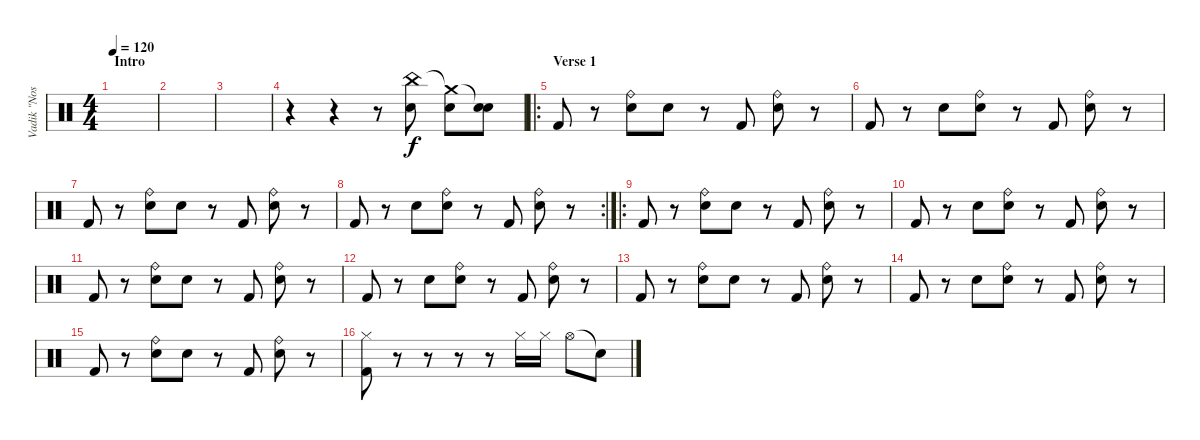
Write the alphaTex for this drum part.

\track ("Vadik \"Nos\"" "Vadik \"Nos") {instrument percussion}
\staff {score}
\articulation defaults
\ts (4 4)
\section ("" "Intro")
\tempo 120
\clef neutral
\ks c
|
|
|
r.4 r.4 r.8 ("Snare (hit) 2" "China (hit)").8 ("Snare (hit) 2" "Crash medium (hit)"{t}).8 ("Snare (hit) 2" "Snare (hit)"{t}).8 |
\ro
\section ("" "Verse 1")
"Kick (hit) 2".8 r.8 ("Snare (hit) 2" "Ride (bell)").8 "Snare (hit) 2".8 r.8 "Kick (hit) 2".8 ("Snare (hit) 2" "Ride (bell)").8 r.8 |
"Kick (hit) 2".8 r.8 "Snare (hit) 2".8 ("Snare (hit) 2" "Ride (bell)").8 r.8 "Kick (hit) 2".8 ("Snare (hit) 2" "Ride (bell)").8 r.8 |
"Kick (hit) 2".8 r.8 ("Snare (hit) 2" "Ride (bell)").8 "Snare (hit) 2".8 r.8 "Kick (hit) 2".8 ("Snare (hit) 2" "Ride (bell)").8 r.8 |
\rc 2 "Kick (hit) 2".8
r.8 "Snare (hit) 2".8 ("Snare (hit) 2" "Ride (bell)").8 r.8 "Kick (hit) 2".8 ("Snare (hit) 2" "Ride (bell)").8 r.8 |
\ro "Kick (hit) 2".8
r.8 ("Snare (hit) 2" "Ride (bell)").8 "Snare (hit) 2".8 r.8 "Kick (hit) 2".8 ("Snare (hit) 2" "Ride (bell)").8 r.8 |
"Kick (hit) 2".8 r.8 "Snare (hit) 2".8 ("Snare (hit) 2" "Ride (bell)").8 r.8 "Kick (hit) 2".8 ("Snare (hit) 2" "Ride (bell)").8 r.8 |
"Kick (hit) 2".8 r.8 ("Snare (hit) 2" "Ride (bell)").8 "Snare (hit) 2".8 r.8 "Kick (hit) 2".8 ("Snare (hit) 2" "Ride (bell)").8 r.8 |
"Kick (hit) 2".8 r.8 "Snare (hit) 2".8 ("Snare (hit) 2" "Ride (bell)").8 r.8 "Kick (hit) 2".8 ("Snare (hit) 2" "Ride (bell)").8 r.8 |
"Kick (hit) 2".8 r.8 ("Snare (hit) 2" "Ride (bell)").8 "Snare (hit) 2".8 r.8 "Kick (hit) 2".8 ("Snare (hit) 2" "Ride (bell)").8 r.8 |
"Kick (hit) 2".8 r.8 "Snare (hit) 2".8 ("Snare (hit) 2" "Ride (bell)").8 r.8 "Kick (hit) 2".8 ("Snare (hit) 2" "Ride (bell)").8 r.8 |
"Kick (hit) 2".8 r.8 ("Snare (hit) 2" "Ride (bell)").8 "Snare (hit) 2".8 r.8 "Kick (hit) 2".8 ("Snare (hit) 2" "Ride (bell)").8 r.8 |
("Kick (hit) 2" "Hi-Hat (closed)").8 r.8 r.8 r.8 r.8 "Hi-Hat (closed)".16 "Hi-Hat (closed)".16 "Hi-Hat (open)".8 "Snare (hit)"{t}.8
